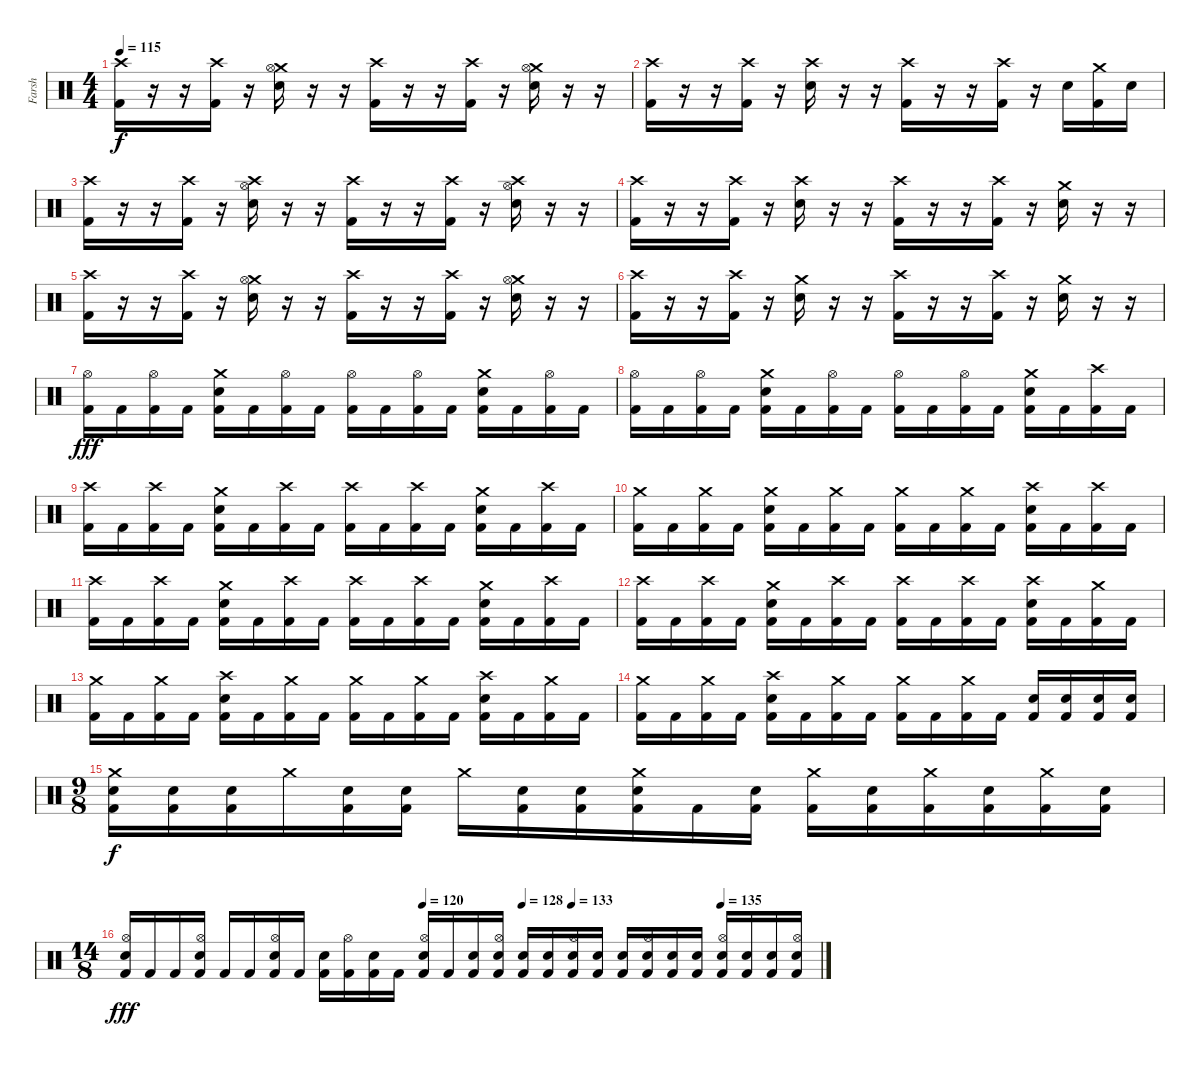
\track ("Farsh" "Farsh") {instrument percussion}
\staff {score}
\articulation defaults
\ts (4 4)
\tempo 115
\clef neutral
\ks c
("Crash high (hit)" "Kick (hit) 2").16{dy f} r.16 r.16 ("Crash high (hit)" "Kick (hit) 2").16 r.16 ("Crash medium (hit)" "Hi-Hat (open)" "Electric Snare (hit)").16 r.16 r.16 ("Crash high (hit)" "Kick (hit) 2").16 r.16 r.16 ("Crash high (hit)" "Kick (hit) 2").16 r.16 ("Crash medium (hit)" "Hi-Hat (open)" "Electric Snare (hit)").16 r.16 r.16 |
("Crash high (hit)" "Kick (hit) 2").16 r.16 r.16 ("Crash high (hit)" "Kick (hit) 2").16 r.16 ("Crash high (hit)" "Electric Snare (hit)").16 r.16 r.16 ("Crash high (hit)" "Kick (hit) 2").16 r.16 r.16 ("Crash high (hit)" "Kick (hit) 2").16 r.16 "Electric Snare (hit)".16 ("Crash medium (hit)" "Kick (hit) 2").16 "Electric Snare (hit)".16 |
("Crash high (hit)" "Kick (hit) 2").16 r.16 r.16 ("Crash high (hit)" "Kick (hit) 2").16 r.16 ("Crash high (hit)" "Hi-Hat (open)" "Electric Snare (hit)").16 r.16 r.16 ("Crash high (hit)" "Kick (hit) 2").16 r.16 r.16 ("Crash high (hit)" "Kick (hit) 2").16 r.16 ("Crash high (hit)" "Hi-Hat (open)" "Electric Snare (hit)").16 r.16 r.16 |
("Crash high (hit)" "Kick (hit) 2").16 r.16 r.16 ("Crash high (hit)" "Kick (hit) 2").16 r.16 ("Crash high (hit)" "Electric Snare (hit)").16 r.16 r.16 ("Crash high (hit)" "Kick (hit) 2").16 r.16 r.16 ("Crash high (hit)" "Kick (hit) 2").16 r.16 ("Crash medium (hit)" "Electric Snare (hit)").16 r.16 r.16 |
("Crash high (hit)" "Kick (hit) 2").16 r.16 r.16 ("Crash high (hit)" "Kick (hit) 2").16 r.16 ("Crash medium (hit)" "Hi-Hat (open)" "Electric Snare (hit)").16 r.16 r.16 ("Crash high (hit)" "Kick (hit) 2").16 r.16 r.16 ("Crash high (hit)" "Kick (hit) 2").16 r.16 ("Crash medium (hit)" "Hi-Hat (open)" "Electric Snare (hit)").16 r.16 r.16 |
("Crash high (hit)" "Kick (hit) 2").16 r.16 r.16 ("Crash high (hit)" "Kick (hit) 2").16 r.16 ("Crash medium (hit)" "Electric Snare (hit)").16 r.16 r.16 ("Crash high (hit)" "Kick (hit) 2").16 r.16 r.16 ("Crash high (hit)" "Kick (hit) 2").16 r.16 ("Crash medium (hit)" "Electric Snare (hit)").16 r.16 r.16 |
("Hi-Hat (open)" "Kick (hit) 2").16{dy fff} "Kick (hit) 2".16 ("Hi-Hat (open)" "Kick (hit) 2").16 "Kick (hit) 2".16 ("Crash medium (hit)" "Electric Snare (hit)" "Kick (hit) 2").16 "Kick (hit) 2".16 ("Hi-Hat (open)" "Kick (hit) 2").16 "Kick (hit) 2".16 ("Hi-Hat (open)" "Kick (hit) 2").16 "Kick (hit) 2".16 ("Hi-Hat (open)" "Kick (hit) 2").16 "Kick (hit) 2".16 ("Crash medium (hit)" "Electric Snare (hit)" "Kick (hit) 2").16 "Kick (hit) 2".16 ("Hi-Hat (open)" "Kick (hit) 2").16 "Kick (hit) 2".16 |
("Hi-Hat (open)" "Kick (hit) 2").16 "Kick (hit) 2".16 ("Hi-Hat (open)" "Kick (hit) 2").16 "Kick (hit) 2".16 ("Crash medium (hit)" "Electric Snare (hit)" "Kick (hit) 2").16 "Kick (hit) 2".16 ("Hi-Hat (open)" "Kick (hit) 2").16 "Kick (hit) 2".16 ("Hi-Hat (open)" "Kick (hit) 2").16 "Kick (hit) 2".16 ("Hi-Hat (open)" "Kick (hit) 2").16 "Kick (hit) 2".16 ("Crash medium (hit)" "Electric Snare (hit)" "Kick (hit) 2").16 "Kick (hit) 2".16 ("Crash high (hit)" "Kick (hit) 2").16 "Kick (hit) 2".16 |
("Crash high (hit)" "Kick (hit) 2").16 "Kick (hit) 2".16 ("Crash high (hit)" "Kick (hit) 2").16 "Kick (hit) 2".16 ("Crash medium (hit)" "Electric Snare (hit)" "Kick (hit) 2").16 "Kick (hit) 2".16 ("Crash high (hit)" "Kick (hit) 2").16 "Kick (hit) 2".16 ("Crash high (hit)" "Kick (hit) 2").16 "Kick (hit) 2".16 ("Crash high (hit)" "Kick (hit) 2").16 "Kick (hit) 2".16 ("Crash medium (hit)" "Electric Snare (hit)" "Kick (hit) 2").16 "Kick (hit) 2".16 ("Crash high (hit)" "Kick (hit) 2").16 "Kick (hit) 2".16 |
("Crash medium (hit)" "Kick (hit) 2").16 "Kick (hit) 2".16 ("Crash medium (hit)" "Kick (hit) 2").16 "Kick (hit) 2".16 ("Crash medium (hit)" "Electric Snare (hit)" "Kick (hit) 2").16 "Kick (hit) 2".16 ("Crash medium (hit)" "Kick (hit) 2").16 "Kick (hit) 2".16 ("Crash medium (hit)" "Kick (hit) 2").16 "Kick (hit) 2".16 ("Crash medium (hit)" "Kick (hit) 2").16 "Kick (hit) 2".16 ("Crash high (hit)" "Electric Snare (hit)" "Kick (hit) 2").16 "Kick (hit) 2".16 ("Crash high (hit)" "Kick (hit) 2").16 "Kick (hit) 2".16 |
("Crash high (hit)" "Kick (hit) 2").16 "Kick (hit) 2".16 ("Crash high (hit)" "Kick (hit) 2").16 "Kick (hit) 2".16 ("Crash medium (hit)" "Electric Snare (hit)" "Kick (hit) 2").16 "Kick (hit) 2".16 ("Crash high (hit)" "Kick (hit) 2").16 "Kick (hit) 2".16 ("Crash high (hit)" "Kick (hit) 2").16 "Kick (hit) 2".16 ("Crash high (hit)" "Kick (hit) 2").16 "Kick (hit) 2".16 ("Crash medium (hit)" "Electric Snare (hit)" "Kick (hit) 2").16 "Kick (hit) 2".16 ("Crash high (hit)" "Kick (hit) 2").16 "Kick (hit) 2".16 |
("Crash high (hit)" "Kick (hit) 2").16 "Kick (hit) 2".16 ("Crash high (hit)" "Kick (hit) 2").16 "Kick (hit) 2".16 ("Crash medium (hit)" "Electric Snare (hit)" "Kick (hit) 2").16 "Kick (hit) 2".16 ("Crash high (hit)" "Kick (hit) 2").16 "Kick (hit) 2".16 ("Crash high (hit)" "Kick (hit) 2").16 "Kick (hit) 2".16 ("Crash high (hit)" "Kick (hit) 2").16 "Kick (hit) 2".16 ("Crash high (hit)" "Electric Snare (hit)" "Kick (hit) 2").16 "Kick (hit) 2".16 ("Crash medium (hit)" "Kick (hit) 2").16 "Kick (hit) 2".16 |
("Crash medium (hit)" "Kick (hit) 2").16 "Kick (hit) 2".16 ("Crash medium (hit)" "Kick (hit) 2").16 "Kick (hit) 2".16 ("Crash high (hit)" "Electric Snare (hit)" "Kick (hit) 2").16 "Kick (hit) 2".16 ("Crash medium (hit)" "Kick (hit) 2").16 "Kick (hit) 2".16 ("Crash medium (hit)" "Kick (hit) 2").16 "Kick (hit) 2".16 ("Crash medium (hit)" "Kick (hit) 2").16 "Kick (hit) 2".16 ("Crash high (hit)" "Electric Snare (hit)" "Kick (hit) 2").16 "Kick (hit) 2".16 ("Crash medium (hit)" "Kick (hit) 2").16 "Kick (hit) 2".16 |
("Crash medium (hit)" "Kick (hit) 2").16 "Kick (hit) 2".16 ("Crash medium (hit)" "Kick (hit) 2").16 "Kick (hit) 2".16 ("Crash high (hit)" "Electric Snare (hit)" "Kick (hit) 2").16 "Kick (hit) 2".16 ("Crash medium (hit)" "Kick (hit) 2").16 "Kick (hit) 2".16 ("Crash medium (hit)" "Kick (hit) 2").16 "Kick (hit) 2".16 ("Crash medium (hit)" "Kick (hit) 2").16 "Kick (hit) 2".16 ("Electric Snare (hit)" "Kick (hit) 2").16 ("Electric Snare (hit)" "Kick (hit) 2").16 ("Electric Snare (hit)" "Kick (hit) 2").16 ("Electric Snare (hit)" "Kick (hit) 2").16 |
\ts (9 8)
("Crash medium (hit)" "Electric Snare (hit)" "Kick (hit) 2").16{dy f} ("Electric Snare (hit)" "Kick (hit) 2").16 ("Electric Snare (hit)" "Kick (hit) 2").16 "Crash medium (hit)".16 ("Electric Snare (hit)" "Kick (hit) 2").16 ("Electric Snare (hit)" "Kick (hit) 2").16 "Crash medium (hit)".16 ("Electric Snare (hit)" "Kick (hit) 2").16 ("Electric Snare (hit)" "Kick (hit) 2").16 ("Crash medium (hit)" "Electric Snare (hit)" "Kick (hit) 2").16 "Kick (hit) 2".16 ("Electric Snare (hit)" "Kick (hit) 2").16 ("Crash medium (hit)" "Kick (hit) 2").16 ("Electric Snare (hit)" "Kick (hit) 2").16 ("Crash medium (hit)" "Kick (hit) 2").16 ("Electric Snare (hit)" "Kick (hit) 2").16 ("Crash medium (hit)" "Kick (hit) 2").16 ("Electric Snare (hit)" "Kick (hit) 2").16 |
\ts (14 8)
\tempo (120 0.42857142857142855)
\tempo (128 0.5714285714285714)
\tempo (133 0.6428571428571429)
\tempo (135 0.8571428571428571)
("Hi-Hat (open)" "Electric Snare (hit)" "Kick (hit) 2").16{dy fff} "Kick (hit) 2".16 "Kick (hit) 2".16 ("Hi-Hat (open)" "Electric Snare (hit)" "Kick (hit) 2").16 "Kick (hit) 2".16 "Kick (hit) 2".16 ("Hi-Hat (open)" "Electric Snare (hit)" "Kick (hit) 2").16 "Kick (hit) 2".16 ("Electric Snare (hit)" "Kick (hit) 2").16 ("Hi-Hat (open)" "Kick (hit) 2").16 ("Electric Snare (hit)" "Kick (hit) 2").16 "Kick (hit) 2".16 ("Hi-Hat (open)" "Electric Snare (hit)" "Kick (hit) 2").16 "Kick (hit) 2".16 ("Electric Snare (hit)" "Kick (hit) 2").16 ("Hi-Hat (open)" "Electric Snare (hit)" "Kick (hit) 2").16 ("Electric Snare (hit)" "Kick (hit) 2").16 ("Electric Snare (hit)" "Kick (hit) 2").16 ("Hi-Hat (open)" "Electric Snare (hit)" "Kick (hit) 2").16 ("Electric Snare (hit)" "Kick (hit) 2").16 ("Electric Snare (hit)" "Kick (hit) 2").16 ("Hi-Hat (open)" "Electric Snare (hit)" "Kick (hit) 2").16 ("Electric Snare (hit)" "Kick (hit) 2").16 ("Electric Snare (hit)" "Kick (hit) 2").16 ("Hi-Hat (open)" "Electric Snare (hit)" "Kick (hit) 2").16 ("Electric Snare (hit)" "Kick (hit) 2").16 ("Electric Snare (hit)" "Kick (hit) 2").16 ("Hi-Hat (open)" "Electric Snare (hit)" "Kick (hit) 2").16
